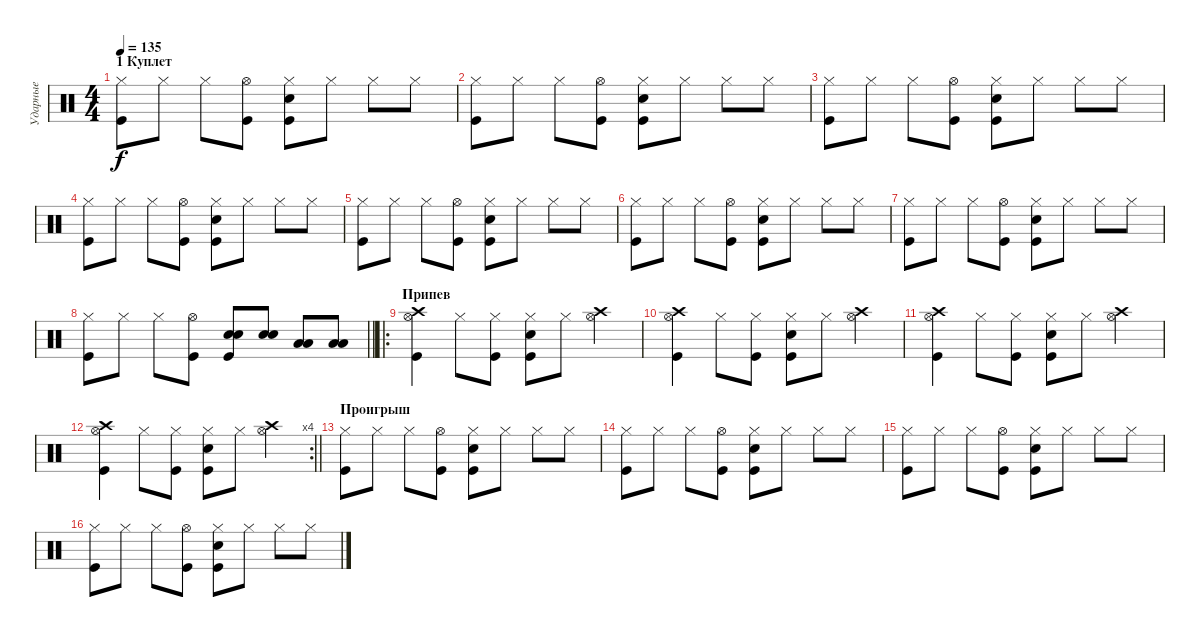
\track ("Ударные" "Ударные") {instrument percussion}
\staff {score}
\articulation defaults
\ts (4 4)
\section ("" "1 Куплет")
\tempo 135
\clef neutral
\ks c
("Hi-Hat (closed)" "Kick (hit)").8{dy f} "Hi-Hat (closed)".8 "Hi-Hat (closed)".8 ("Hi-Hat (open)" "Kick (hit)").8 ("Hi-Hat (closed)" "Snare (hit) 2" "Kick (hit)").8 "Hi-Hat (closed)".8 "Hi-Hat (closed)".8 "Hi-Hat (closed)".8 |
("Hi-Hat (closed)" "Kick (hit)").8 "Hi-Hat (closed)".8 "Hi-Hat (closed)".8 ("Hi-Hat (open)" "Kick (hit)").8 ("Hi-Hat (closed)" "Snare (hit) 2" "Kick (hit)").8 "Hi-Hat (closed)".8 "Hi-Hat (closed)".8 "Hi-Hat (closed)".8 |
("Hi-Hat (closed)" "Kick (hit)").8 "Hi-Hat (closed)".8 "Hi-Hat (closed)".8 ("Hi-Hat (open)" "Kick (hit)").8 ("Hi-Hat (closed)" "Snare (hit) 2" "Kick (hit)").8 "Hi-Hat (closed)".8 "Hi-Hat (closed)".8 "Hi-Hat (closed)".8 |
("Hi-Hat (closed)" "Kick (hit)").8 "Hi-Hat (closed)".8 "Hi-Hat (closed)".8 ("Hi-Hat (open)" "Kick (hit)").8 ("Hi-Hat (closed)" "Snare (hit) 2" "Kick (hit)").8 "Hi-Hat (closed)".8 "Hi-Hat (closed)".8 "Hi-Hat (closed)".8 |
("Hi-Hat (closed)" "Kick (hit)").8 "Hi-Hat (closed)".8 "Hi-Hat (closed)".8 ("Hi-Hat (open)" "Kick (hit)").8 ("Hi-Hat (closed)" "Snare (hit) 2" "Kick (hit)").8 "Hi-Hat (closed)".8 "Hi-Hat (closed)".8 "Hi-Hat (closed)".8 |
("Hi-Hat (closed)" "Kick (hit)").8 "Hi-Hat (closed)".8 "Hi-Hat (closed)".8 ("Hi-Hat (open)" "Kick (hit)").8 ("Hi-Hat (closed)" "Snare (hit) 2" "Kick (hit)").8 "Hi-Hat (closed)".8 "Hi-Hat (closed)".8 "Hi-Hat (closed)".8 |
("Hi-Hat (closed)" "Kick (hit)").8 "Hi-Hat (closed)".8 "Hi-Hat (closed)".8 ("Hi-Hat (open)" "Kick (hit)").8 ("Hi-Hat (closed)" "Snare (hit) 2" "Kick (hit)").8 "Hi-Hat (closed)".8 "Hi-Hat (closed)".8 "Hi-Hat (closed)".8 |
\barLineRight lightlight
("Hi-Hat (closed)" "Kick (hit)").8 "Hi-Hat (closed)".8 "Hi-Hat (closed)".8 ("Hi-Hat (open)" "Kick (hit)").8 ("Snare (hit) 2" "Snare (hit) 2" "Kick (hit)").8 ("Snare (hit) 2" "Snare (hit) 2").8 ("Low Tom (hit)" "Low Tom (hit)").8 ("Low Tom (hit)" "Low Tom (hit)").8 |
\ro
\section ("" "Припев")
("Hi-Hat (open)" "Crash high (hit)" "Kick (hit)").4 "Hi-Hat (closed)".8 ("Hi-Hat (closed)" "Kick (hit)").8 ("Hi-Hat (closed)" "Snare (hit) 2" "Kick (hit)").8 "Hi-Hat (closed)".8 ("Hi-Hat (open)" "Crash high (hit)").4 |
("Hi-Hat (open)" "Crash high (hit)" "Kick (hit)").4 "Hi-Hat (closed)".8 ("Hi-Hat (closed)" "Kick (hit)").8 ("Hi-Hat (closed)" "Snare (hit) 2" "Kick (hit)").8 "Hi-Hat (closed)".8 ("Hi-Hat (open)" "Crash high (hit)").4 |
("Hi-Hat (open)" "Crash high (hit)" "Kick (hit)").4 "Hi-Hat (closed)".8 ("Hi-Hat (closed)" "Kick (hit)").8 ("Hi-Hat (closed)" "Snare (hit) 2" "Kick (hit)").8 "Hi-Hat (closed)".8 ("Hi-Hat (open)" "Crash high (hit)").4 |
\rc 4
\barLineRight lightlight
("Hi-Hat (open)" "Crash high (hit)" "Kick (hit)").4 "Hi-Hat (closed)".8 ("Hi-Hat (closed)" "Kick (hit)").8 ("Hi-Hat (closed)" "Snare (hit) 2" "Kick (hit)").8 "Hi-Hat (closed)".8 ("Hi-Hat (open)" "Crash high (hit)").4 |
\section ("" "Проигрыш")
("Hi-Hat (closed)" "Kick (hit)").8 "Hi-Hat (closed)".8 "Hi-Hat (closed)".8 ("Hi-Hat (open)" "Kick (hit)").8 ("Hi-Hat (closed)" "Snare (hit) 2" "Kick (hit)").8 "Hi-Hat (closed)".8 "Hi-Hat (closed)".8 "Hi-Hat (closed)".8 |
("Hi-Hat (closed)" "Kick (hit)").8 "Hi-Hat (closed)".8 "Hi-Hat (closed)".8 ("Hi-Hat (open)" "Kick (hit)").8 ("Hi-Hat (closed)" "Snare (hit) 2" "Kick (hit)").8 "Hi-Hat (closed)".8 "Hi-Hat (closed)".8 "Hi-Hat (closed)".8 |
("Hi-Hat (closed)" "Kick (hit)").8 "Hi-Hat (closed)".8 "Hi-Hat (closed)".8 ("Hi-Hat (open)" "Kick (hit)").8 ("Hi-Hat (closed)" "Snare (hit) 2" "Kick (hit)").8 "Hi-Hat (closed)".8 "Hi-Hat (closed)".8 "Hi-Hat (closed)".8 |
("Hi-Hat (closed)" "Kick (hit)").8 "Hi-Hat (closed)".8 "Hi-Hat (closed)".8 ("Hi-Hat (open)" "Kick (hit)").8 ("Hi-Hat (closed)" "Snare (hit) 2" "Kick (hit)").8 "Hi-Hat (closed)".8 "Hi-Hat (closed)".8 "Hi-Hat (closed)".8
